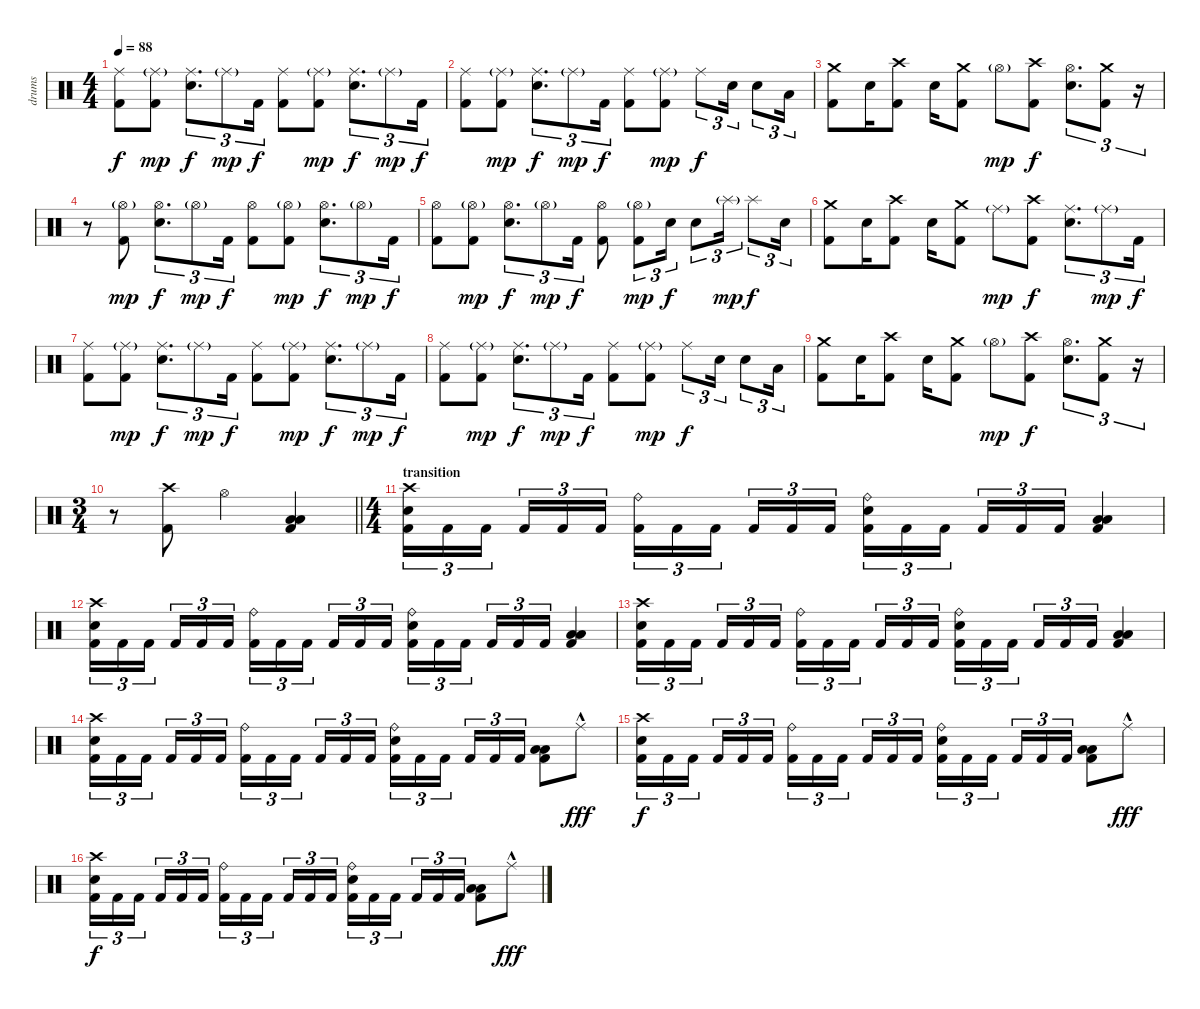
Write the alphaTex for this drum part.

\track ("drums" "drums") {instrument percussion}
\staff {score}
\articulation defaults
\ts (4 4)
\tempo 88
\clef neutral
\ks c
("Ride (middle)" "Kick (hit) 2").8{dy f} ("Ride (middle)"{g} "Kick (hit) 2").8{dy mp} ("Ride (middle)" "Snare (hit) 2").8{d tu (3 2) dy f} "Ride (middle)"{g}.8{tu (3 2) dy mp} "Kick (hit) 2".16{tu (3 2) dy f} ("Ride (middle)" "Kick (hit) 2").8 ("Ride (middle)"{g} "Kick (hit) 2").8{dy mp} ("Ride (middle)" "Snare (hit) 2").8{d tu (3 2) dy f} "Ride (middle)"{g}.8{tu (3 2) dy mp} "Kick (hit) 2".16{tu (3 2) dy f} |
("Ride (middle)" "Kick (hit) 2").8 ("Ride (middle)"{g} "Kick (hit) 2").8{dy mp} ("Ride (middle)" "Snare (hit) 2").8{d tu (3 2) dy f} "Ride (middle)"{g}.8{tu (3 2) dy mp} "Kick (hit) 2".16{tu (3 2) dy f} ("Ride (middle)" "Kick (hit) 2").8 ("Ride (middle)"{g} "Kick (hit) 2").8{dy mp} "Ride (middle)".8{tu (3 2) dy f} "Snare (hit) 2".16{tu (3 2)} "Snare (hit) 2".8{tu (3 2)} "Low Tom (hit)".16{tu (3 2)} |
("Crash medium (hit)" "Kick (hit) 2").8 "Snare (hit) 2".16 ("Crash high (hit)" "Kick (hit) 2").8 "Snare (hit) 2".16 ("Crash medium (hit)" "Kick (hit) 2").8 "Hi-Hat (open)"{g}.8{dy mp} ("Crash high (hit)" "Kick (hit) 2").8{dy f} ("Hi-Hat (open)" "Snare (hit) 2").8{d tu (3 2)} ("Crash medium (hit)" "Kick (hit) 2").8{tu (3 2)} r.16{tu (3 2)} |
r.8 ("Hi-Hat (open)"{g} "Kick (hit) 2").8{dy mp} ("Hi-Hat (open)" "Snare (hit) 2").8{d tu (3 2) dy f} "Hi-Hat (open)"{g}.8{tu (3 2) dy mp} "Kick (hit) 2".16{tu (3 2) dy f} ("Hi-Hat (open)" "Kick (hit) 2").8 ("Hi-Hat (open)"{g} "Kick (hit) 2").8{dy mp} ("Hi-Hat (open)" "Snare (hit) 2").8{d tu (3 2) dy f} "Hi-Hat (open)"{g}.8{tu (3 2) dy mp} "Kick (hit) 2".16{tu (3 2) dy f} |
("Hi-Hat (open)" "Kick (hit) 2").8 ("Hi-Hat (open)"{g} "Kick (hit) 2").8{dy mp} ("Hi-Hat (open)" "Snare (hit) 2").8{d tu (3 2) dy f} "Hi-Hat (open)"{g}.8{tu (3 2) dy mp} "Kick (hit) 2".16{tu (3 2) dy f} ("Hi-Hat (open)" "Kick (hit) 2").8 ("Hi-Hat (open)"{g} "Kick (hit) 2").8{tu (3 2) dy mp} "Snare (hit) 2".16{tu (3 2) dy f} "Snare (hit) 2".8{tu (3 2)} "Splash (hit)"{g}.16{tu (3 2) dy mp} "Splash (hit)".8{tu (3 2) dy f} "Snare (hit) 2".16{tu (3 2)} |
("Crash medium (hit)" "Kick (hit) 2").8 "Snare (hit) 2".16 ("Crash high (hit)" "Kick (hit) 2").8 "Snare (hit) 2".16 ("Crash medium (hit)" "Kick (hit) 2").8 "Ride (middle)"{g}.8{dy mp} ("Crash high (hit)" "Kick (hit) 2").8{dy f} ("Ride (middle)" "Snare (hit) 2").8{d tu (3 2)} "Ride (middle)"{g}.8{tu (3 2) dy mp} "Kick (hit) 2".16{tu (3 2) dy f} |
("Ride (middle)" "Kick (hit) 2").8 ("Ride (middle)"{g} "Kick (hit) 2").8{dy mp} ("Ride (middle)" "Snare (hit) 2").8{d tu (3 2) dy f} "Ride (middle)"{g}.8{tu (3 2) dy mp} "Kick (hit) 2".16{tu (3 2) dy f} ("Ride (middle)" "Kick (hit) 2").8 ("Ride (middle)"{g} "Kick (hit) 2").8{dy mp} ("Ride (middle)" "Snare (hit) 2").8{d tu (3 2) dy f} "Ride (middle)"{g}.8{tu (3 2) dy mp} "Kick (hit) 2".16{tu (3 2) dy f} |
("Ride (middle)" "Kick (hit) 2").8 ("Ride (middle)"{g} "Kick (hit) 2").8{dy mp} ("Ride (middle)" "Snare (hit) 2").8{d tu (3 2) dy f} "Ride (middle)"{g}.8{tu (3 2) dy mp} "Kick (hit) 2".16{tu (3 2) dy f} ("Ride (middle)" "Kick (hit) 2").8 ("Ride (middle)"{g} "Kick (hit) 2").8{dy mp} "Ride (middle)".8{tu (3 2) dy f} "Snare (hit) 2".16{tu (3 2)} "Snare (hit) 2".8{tu (3 2)} "Low Tom (hit)".16{tu (3 2)} |
("Crash medium (hit)" "Kick (hit) 2").8 "Snare (hit) 2".16 ("Crash high (hit)" "Kick (hit) 2").8 "Snare (hit) 2".16 ("Crash medium (hit)" "Kick (hit) 2").8 "Hi-Hat (open)"{g}.8{dy mp} ("Crash high (hit)" "Kick (hit) 2").8{dy f} ("Hi-Hat (open)" "Snare (hit) 2").8{d tu (3 2)} ("Crash medium (hit)" "Kick (hit) 2").8{tu (3 2)} r.16{tu (3 2)} |
\ts (3 4)
\barLineRight lightlight
r.8 ("Crash high (hit)" "Kick (hit) 2").8 "Hi-Hat (open)".4 ("Low Floor Tom (hit)" "Low Floor Tom (hit)" "Kick (hit) 2").4 |
\ts (4 4)
\section ("" "transition")
("Crash high (hit)" "Snare (hit) 2" "Kick (hit) 2").16{tu (3 2)} "Kick (hit) 2".16{tu (3 2)} "Kick (hit) 2".16{tu (3 2) beam splitsecondary} "Kick (hit) 2".16{tu (3 2)} "Kick (hit) 2".16{tu (3 2)} "Kick (hit) 2".16{tu (3 2)} ("Ride (bell)" "Kick (hit) 2").16{tu (3 2)} "Kick (hit) 2".16{tu (3 2)} "Kick (hit) 2".16{tu (3 2) beam splitsecondary} "Kick (hit) 2".16{tu (3 2)} "Kick (hit) 2".16{tu (3 2)} "Kick (hit) 2".16{tu (3 2)} ("Ride (bell)" "Snare (hit) 2" "Kick (hit) 2").16{tu (3 2)} "Kick (hit) 2".16{tu (3 2)} "Kick (hit) 2".16{tu (3 2) beam splitsecondary} "Kick (hit) 2".16{tu (3 2)} "Kick (hit) 2".16{tu (3 2)} "Kick (hit) 2".16{tu (3 2)} ("Low Floor Tom (hit)" "Low Floor Tom (hit)" "Kick (hit) 2").4 |
("Crash high (hit)" "Snare (hit) 2" "Kick (hit) 2").16{tu (3 2)} "Kick (hit) 2".16{tu (3 2)} "Kick (hit) 2".16{tu (3 2) beam splitsecondary} "Kick (hit) 2".16{tu (3 2)} "Kick (hit) 2".16{tu (3 2)} "Kick (hit) 2".16{tu (3 2)} ("Ride (bell)" "Kick (hit) 2").16{tu (3 2)} "Kick (hit) 2".16{tu (3 2)} "Kick (hit) 2".16{tu (3 2) beam splitsecondary} "Kick (hit) 2".16{tu (3 2)} "Kick (hit) 2".16{tu (3 2)} "Kick (hit) 2".16{tu (3 2)} ("Ride (bell)" "Snare (hit) 2" "Kick (hit) 2").16{tu (3 2)} "Kick (hit) 2".16{tu (3 2)} "Kick (hit) 2".16{tu (3 2) beam splitsecondary} "Kick (hit) 2".16{tu (3 2)} "Kick (hit) 2".16{tu (3 2)} "Kick (hit) 2".16{tu (3 2)} ("Low Floor Tom (hit)" "Low Floor Tom (hit)" "Kick (hit) 2").4 |
("Crash high (hit)" "Snare (hit) 2" "Kick (hit) 2").16{tu (3 2)} "Kick (hit) 2".16{tu (3 2)} "Kick (hit) 2".16{tu (3 2) beam splitsecondary} "Kick (hit) 2".16{tu (3 2)} "Kick (hit) 2".16{tu (3 2)} "Kick (hit) 2".16{tu (3 2)} ("Ride (bell)" "Kick (hit) 2").16{tu (3 2)} "Kick (hit) 2".16{tu (3 2)} "Kick (hit) 2".16{tu (3 2) beam splitsecondary} "Kick (hit) 2".16{tu (3 2)} "Kick (hit) 2".16{tu (3 2)} "Kick (hit) 2".16{tu (3 2)} ("Ride (bell)" "Snare (hit) 2" "Kick (hit) 2").16{tu (3 2)} "Kick (hit) 2".16{tu (3 2)} "Kick (hit) 2".16{tu (3 2) beam splitsecondary} "Kick (hit) 2".16{tu (3 2)} "Kick (hit) 2".16{tu (3 2)} "Kick (hit) 2".16{tu (3 2)} ("Low Floor Tom (hit)" "Low Floor Tom (hit)" "Kick (hit) 2").4 |
("Crash high (hit)" "Snare (hit) 2" "Kick (hit) 2").16{tu (3 2)} "Kick (hit) 2".16{tu (3 2)} "Kick (hit) 2".16{tu (3 2) beam splitsecondary} "Kick (hit) 2".16{tu (3 2)} "Kick (hit) 2".16{tu (3 2)} "Kick (hit) 2".16{tu (3 2)} ("Ride (bell)" "Kick (hit) 2").16{tu (3 2)} "Kick (hit) 2".16{tu (3 2)} "Kick (hit) 2".16{tu (3 2) beam splitsecondary} "Kick (hit) 2".16{tu (3 2)} "Kick (hit) 2".16{tu (3 2)} "Kick (hit) 2".16{tu (3 2)} ("Ride (bell)" "Snare (hit) 2" "Kick (hit) 2").16{tu (3 2)} "Kick (hit) 2".16{tu (3 2)} "Kick (hit) 2".16{tu (3 2) beam splitsecondary} "Kick (hit) 2".16{tu (3 2)} "Kick (hit) 2".16{tu (3 2)} "Kick (hit) 2".16{tu (3 2)} ("Low Floor Tom (hit)" "Low Floor Tom (hit)" "Kick (hit) 2").8 "Ride (middle)"{hac}.8{dy fff} |
("Crash high (hit)" "Snare (hit) 2" "Kick (hit) 2").16{tu (3 2) dy f} "Kick (hit) 2".16{tu (3 2)} "Kick (hit) 2".16{tu (3 2) beam splitsecondary} "Kick (hit) 2".16{tu (3 2)} "Kick (hit) 2".16{tu (3 2)} "Kick (hit) 2".16{tu (3 2)} ("Ride (bell)" "Kick (hit) 2").16{tu (3 2)} "Kick (hit) 2".16{tu (3 2)} "Kick (hit) 2".16{tu (3 2) beam splitsecondary} "Kick (hit) 2".16{tu (3 2)} "Kick (hit) 2".16{tu (3 2)} "Kick (hit) 2".16{tu (3 2)} ("Ride (bell)" "Snare (hit) 2" "Kick (hit) 2").16{tu (3 2)} "Kick (hit) 2".16{tu (3 2)} "Kick (hit) 2".16{tu (3 2) beam splitsecondary} "Kick (hit) 2".16{tu (3 2)} "Kick (hit) 2".16{tu (3 2)} "Kick (hit) 2".16{tu (3 2)} ("Low Floor Tom (hit)" "Low Floor Tom (hit)" "Kick (hit) 2").8 "Ride (middle)"{hac}.8{dy fff} |
("Crash high (hit)" "Snare (hit) 2" "Kick (hit) 2").16{tu (3 2) dy f} "Kick (hit) 2".16{tu (3 2)} "Kick (hit) 2".16{tu (3 2) beam splitsecondary} "Kick (hit) 2".16{tu (3 2)} "Kick (hit) 2".16{tu (3 2)} "Kick (hit) 2".16{tu (3 2)} ("Ride (bell)" "Kick (hit) 2").16{tu (3 2)} "Kick (hit) 2".16{tu (3 2)} "Kick (hit) 2".16{tu (3 2) beam splitsecondary} "Kick (hit) 2".16{tu (3 2)} "Kick (hit) 2".16{tu (3 2)} "Kick (hit) 2".16{tu (3 2)} ("Ride (bell)" "Snare (hit) 2" "Kick (hit) 2").16{tu (3 2)} "Kick (hit) 2".16{tu (3 2)} "Kick (hit) 2".16{tu (3 2) beam splitsecondary} "Kick (hit) 2".16{tu (3 2)} "Kick (hit) 2".16{tu (3 2)} "Kick (hit) 2".16{tu (3 2)} ("Low Floor Tom (hit)" "Low Floor Tom (hit)" "Kick (hit) 2").8 "Ride (middle)"{hac}.8{dy fff}
